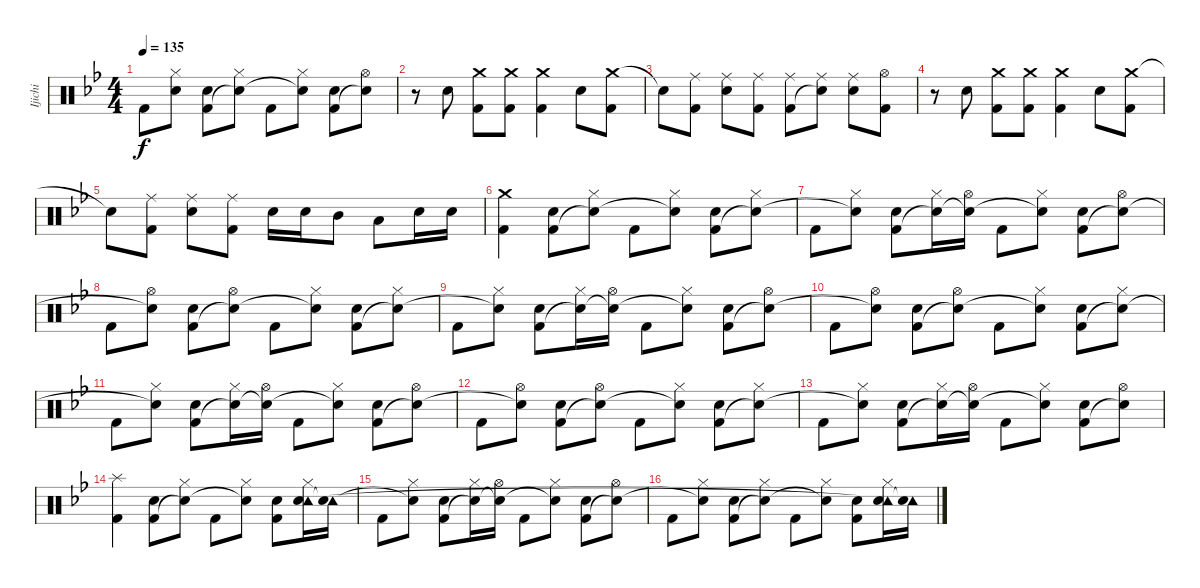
\track ("Ijichi" "Ijichi") {instrument percussion}
\staff {score}
\articulation defaults
\ts (4 4)
\tempo 135
\clef neutral
\ks bb "Kick (hit) 2".8{dy f}
("Hi-Hat (closed)" "Snare (hit)"{t}).8 ("Electric Snare (hit)" "Kick (hit) 2").8 ("Hi-Hat (closed)" "Snare (hit)"{t}).8 "Kick (hit) 2".8 ("Hi-Hat (closed)" "Snare (hit)"{t}).8 ("Electric Snare (hit)" "Kick (hit) 2").8 ("Hi-Hat (open)" "Snare (hit)"{t}).8 |
r.8 "Electric Snare (hit)".8 ("Crash medium (hit)" "Kick (hit) 2").8 ("Crash medium (hit)" "Kick (hit) 2").8 ("Crash medium (hit)" "Kick (hit) 2").4 "Electric Snare (hit)".8 ("Crash medium (hit)" "Kick (hit) 2").8 |
"Snare (hit)"{t}.8 ("Ride (middle)" "Kick (hit) 2").8 ("Ride (middle)" "Electric Snare (hit)").8 ("Ride (middle)" "Kick (hit) 2").8 ("Ride (middle)" "Kick (hit) 2").8 ("Ride (middle)" "Snare (hit)"{t}).8 ("Ride (middle)" "Electric Snare (hit)").8 ("Hi-Hat (open)" "Kick (hit) 2").8 |
r.8 "Electric Snare (hit)".8 ("Crash medium (hit)" "Kick (hit) 2").8 ("Crash medium (hit)" "Kick (hit) 2").8 ("Crash medium (hit)" "Kick (hit) 2").4 "Electric Snare (hit)".8 ("Crash medium (hit)" "Kick (hit) 2").8 |
"Snare (hit)"{t}.8 ("Ride (middle)" "Kick (hit) 2").8 ("Ride (middle)" "Electric Snare (hit)").8 ("Ride (middle)" "Kick (hit) 2").8 "Electric Snare (hit)".16 "Electric Snare (hit)".16 "Mid Tom (hit)".8 "Low Floor Tom (hit)".8 "Electric Snare (hit)".16 "Electric Snare (hit)".16 |
("Crash medium (hit)" "Kick (hit) 2").4 ("Electric Snare (hit)" "Kick (hit) 2").8 ("Hi-Hat (closed)" "Snare (hit)"{t}).8 "Kick (hit) 2".8 ("Hi-Hat (closed)" "Snare (hit)"{t}).8 ("Electric Snare (hit)" "Kick (hit) 2").8 ("Hi-Hat (closed)" "Snare (hit)"{t}).8 |
"Kick (hit) 2".8 ("Hi-Hat (closed)" "Snare (hit)"{t}).8 ("Electric Snare (hit)" "Kick (hit) 2").8 ("Hi-Hat (closed)" "Snare (hit)"{t}).16 ("Hi-Hat (open)" "Snare (hit)"{t}).16 "Kick (hit) 2".8 ("Hi-Hat (closed)" "Snare (hit)"{t}).8 ("Electric Snare (hit)" "Kick (hit) 2").8 ("Hi-Hat (open)" "Snare (hit)"{t}).8 |
"Kick (hit) 2".8 ("Hi-Hat (open)" "Snare (hit)"{t}).8 ("Electric Snare (hit)" "Kick (hit) 2").8 ("Hi-Hat (open)" "Snare (hit)"{t}).8 "Kick (hit) 2".8 ("Hi-Hat (closed)" "Snare (hit)"{t}).8 ("Electric Snare (hit)" "Kick (hit) 2").8 ("Hi-Hat (closed)" "Snare (hit)"{t}).8 |
"Kick (hit) 2".8 ("Hi-Hat (closed)" "Snare (hit)"{t}).8 ("Electric Snare (hit)" "Kick (hit) 2").8 ("Hi-Hat (closed)" "Snare (hit)"{t}).16 ("Hi-Hat (open)" "Snare (hit)"{t}).16 "Kick (hit) 2".8 ("Hi-Hat (closed)" "Snare (hit)"{t}).8 ("Electric Snare (hit)" "Kick (hit) 2").8 ("Hi-Hat (open)" "Snare (hit)"{t}).8 |
"Kick (hit) 2".8 ("Hi-Hat (open)" "Snare (hit)"{t}).8 ("Electric Snare (hit)" "Kick (hit) 2").8 ("Hi-Hat (open)" "Snare (hit)"{t}).8 "Kick (hit) 2".8 ("Hi-Hat (closed)" "Snare (hit)"{t}).8 ("Electric Snare (hit)" "Kick (hit) 2").8 ("Hi-Hat (closed)" "Snare (hit)"{t}).8 |
"Kick (hit) 2".8 ("Hi-Hat (closed)" "Snare (hit)"{t}).8 ("Electric Snare (hit)" "Kick (hit) 2").8 ("Hi-Hat (closed)" "Snare (hit)"{t}).16 ("Hi-Hat (open)" "Snare (hit)"{t}).16 "Kick (hit) 2".8 ("Hi-Hat (closed)" "Snare (hit)"{t}).8 ("Electric Snare (hit)" "Kick (hit) 2").8 ("Hi-Hat (open)" "Snare (hit)"{t}).8 |
"Kick (hit) 2".8 ("Hi-Hat (open)" "Snare (hit)"{t}).8 ("Electric Snare (hit)" "Kick (hit) 2").8 ("Hi-Hat (open)" "Snare (hit)"{t}).8 "Kick (hit) 2".8 ("Hi-Hat (closed)" "Snare (hit)"{t}).8 ("Electric Snare (hit)" "Kick (hit) 2").8 ("Hi-Hat (closed)" "Snare (hit)"{t}).8 |
"Kick (hit) 2".8 ("Hi-Hat (closed)" "Snare (hit)"{t}).8 ("Electric Snare (hit)" "Kick (hit) 2").8 ("Hi-Hat (closed)" "Snare (hit)"{t}).16 ("Hi-Hat (open)" "Snare (hit)"{t}).16 "Kick (hit) 2".8 ("Hi-Hat (closed)" "Snare (hit)"{t}).8 ("Electric Snare (hit)" "Kick (hit) 2").8 ("Hi-Hat (open)" "Snare (hit)"{t}).8 |
("Splash (hit)" "Kick (hit) 2").4 ("Electric Snare (hit)" "Kick (hit) 2").8 ("Hi-Hat (closed)" "Snare (hit)"{t}).8 "Kick (hit) 2".8 ("Hi-Hat (closed)" "Snare (hit)"{t}).8 ("Electric Snare (hit)" "Kick (hit) 2").8 ("Hi-Hat (closed)" "Tambourine (hit)" "Snare (hit)").16 ("Tambourine (hit)" "Snare (hit)"{t}).16 |
"Kick (hit) 2".8 ("Hi-Hat (closed)" "Snare (hit)"{t}).8 ("Electric Snare (hit)" "Kick (hit) 2").8 ("Hi-Hat (closed)" "Snare (hit)"{t}).16 ("Hi-Hat (open)" "Snare (hit)"{t}).16 "Kick (hit) 2".8 ("Hi-Hat (closed)" "Snare (hit)"{t}).8 ("Electric Snare (hit)" "Kick (hit) 2").8 ("Hi-Hat (open)" "Snare (hit)"{t}).8 |
"Kick (hit) 2".8 ("Hi-Hat (closed)" "Snare (hit)"{t}).8 ("Electric Snare (hit)" "Kick (hit) 2").8 ("Hi-Hat (closed)" "Snare (hit)"{t}).8 "Kick (hit) 2".8 ("Hi-Hat (closed)" "Snare (hit)"{t}).8 ("Electric Snare (hit)" "Kick (hit) 2").8 ("Hi-Hat (closed)" "Tambourine (hit)" "Snare (hit)"{t}).16 ("Tambourine (hit)" "Snare (hit)"{t}).16
